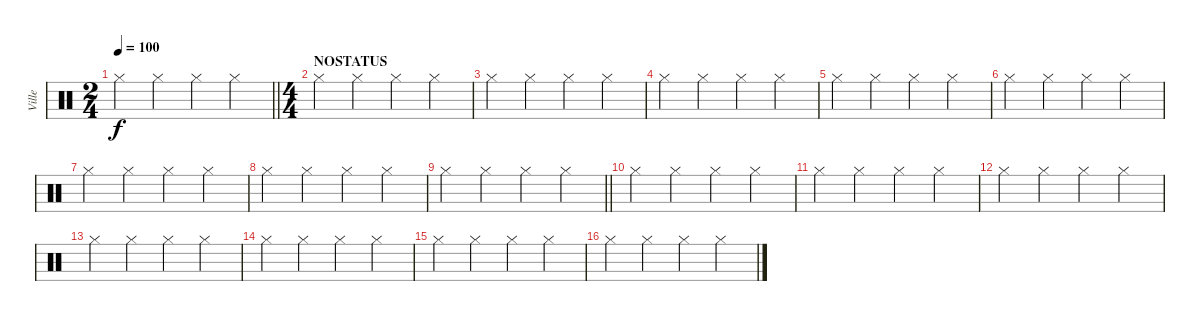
\track ("Ville" "Ville") {instrument percussion}
\staff {score}
\articulation defaults
\ts (2 4)
\tempo 100
\clef neutral
\barLineRight lightlight
\ks c "Hi-Hat (closed)".4{dy f} "Hi-Hat (closed)".4 "Hi-Hat (closed)".4 "Hi-Hat (closed)".4
|
\ts (4 4)
\section ("" "NOSTATUS")
"Hi-Hat (closed)".4 "Hi-Hat (closed)".4 "Hi-Hat (closed)".4 "Hi-Hat (closed)".4 |
"Hi-Hat (closed)".4 "Hi-Hat (closed)".4 "Hi-Hat (closed)".4 "Hi-Hat (closed)".4 |
"Hi-Hat (closed)".4 "Hi-Hat (closed)".4 "Hi-Hat (closed)".4 "Hi-Hat (closed)".4 |
"Hi-Hat (closed)".4 "Hi-Hat (closed)".4 "Hi-Hat (closed)".4 "Hi-Hat (closed)".4 |
"Hi-Hat (closed)".4 "Hi-Hat (closed)".4 "Hi-Hat (closed)".4 "Hi-Hat (closed)".4 |
"Hi-Hat (closed)".4 "Hi-Hat (closed)".4 "Hi-Hat (closed)".4 "Hi-Hat (closed)".4 |
"Hi-Hat (closed)".4 "Hi-Hat (closed)".4 "Hi-Hat (closed)".4 "Hi-Hat (closed)".4 |
\barLineRight lightlight "Hi-Hat (closed)".4 "Hi-Hat (closed)".4 "Hi-Hat (closed)".4 "Hi-Hat (closed)".4
|
"Hi-Hat (closed)".4 "Hi-Hat (closed)".4 "Hi-Hat (closed)".4 "Hi-Hat (closed)".4 |
"Hi-Hat (closed)".4 "Hi-Hat (closed)".4 "Hi-Hat (closed)".4 "Hi-Hat (closed)".4 |
"Hi-Hat (closed)".4 "Hi-Hat (closed)".4 "Hi-Hat (closed)".4 "Hi-Hat (closed)".4 |
"Hi-Hat (closed)".4 "Hi-Hat (closed)".4 "Hi-Hat (closed)".4 "Hi-Hat (closed)".4 |
"Hi-Hat (closed)".4 "Hi-Hat (closed)".4 "Hi-Hat (closed)".4 "Hi-Hat (closed)".4 |
"Hi-Hat (closed)".4 "Hi-Hat (closed)".4 "Hi-Hat (closed)".4 "Hi-Hat (closed)".4 |
"Hi-Hat (closed)".4 "Hi-Hat (closed)".4 "Hi-Hat (closed)".4 "Hi-Hat (closed)".4
